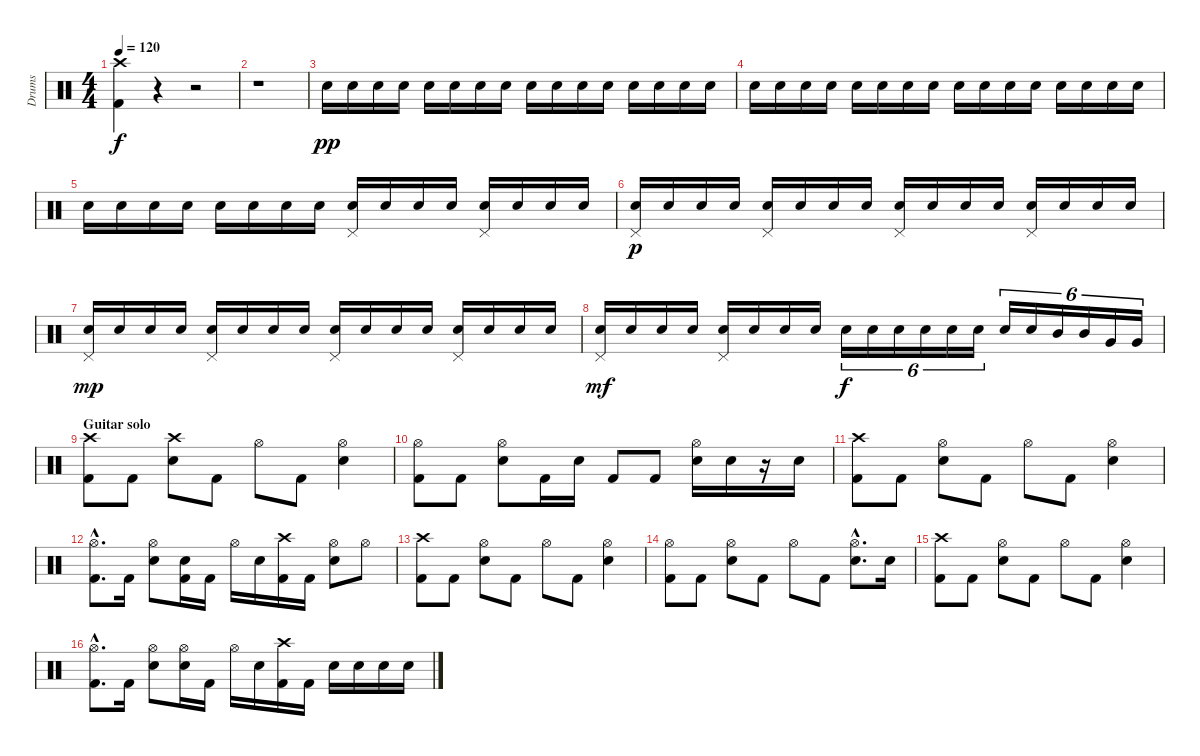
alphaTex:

\track ("Drums" "Drums") {instrument percussion}
\staff {score}
\articulation defaults
\ts (4 4)
\tempo 120
\clef neutral
\ks c
("Crash high (hit)" "Kick (hit) 2").4{dy f} r.4 r.2 |
r.1 |
"Electric Snare (hit)".16{dy pp} "Electric Snare (hit)".16 "Electric Snare (hit)".16 "Electric Snare (hit)".16 "Electric Snare (hit)".16 "Electric Snare (hit)".16 "Electric Snare (hit)".16 "Electric Snare (hit)".16 "Electric Snare (hit)".16 "Electric Snare (hit)".16 "Electric Snare (hit)".16 "Electric Snare (hit)".16 "Electric Snare (hit)".16 "Electric Snare (hit)".16 "Electric Snare (hit)".16 "Electric Snare (hit)".16 |
"Electric Snare (hit)".16 "Electric Snare (hit)".16 "Electric Snare (hit)".16 "Electric Snare (hit)".16 "Electric Snare (hit)".16 "Electric Snare (hit)".16 "Electric Snare (hit)".16 "Electric Snare (hit)".16 "Electric Snare (hit)".16 "Electric Snare (hit)".16 "Electric Snare (hit)".16 "Electric Snare (hit)".16 "Electric Snare (hit)".16 "Electric Snare (hit)".16 "Electric Snare (hit)".16 "Electric Snare (hit)".16 |
"Electric Snare (hit)".16 "Electric Snare (hit)".16 "Electric Snare (hit)".16 "Electric Snare (hit)".16 "Electric Snare (hit)".16 "Electric Snare (hit)".16 "Electric Snare (hit)".16 "Electric Snare (hit)".16 ("Electric Snare (hit)" "Pedal Hi-Hat (hit)").16 "Electric Snare (hit)".16 "Electric Snare (hit)".16 "Electric Snare (hit)".16 ("Electric Snare (hit)" "Pedal Hi-Hat (hit)").16 "Electric Snare (hit)".16 "Electric Snare (hit)".16 "Electric Snare (hit)".16 |
("Electric Snare (hit)" "Pedal Hi-Hat (hit)").16{dy p} "Electric Snare (hit)".16 "Electric Snare (hit)".16 "Electric Snare (hit)".16 ("Electric Snare (hit)" "Pedal Hi-Hat (hit)").16 "Electric Snare (hit)".16 "Electric Snare (hit)".16 "Electric Snare (hit)".16 ("Electric Snare (hit)" "Pedal Hi-Hat (hit)").16 "Electric Snare (hit)".16 "Electric Snare (hit)".16 "Electric Snare (hit)".16 ("Electric Snare (hit)" "Pedal Hi-Hat (hit)").16 "Electric Snare (hit)".16 "Electric Snare (hit)".16 "Electric Snare (hit)".16 |
("Electric Snare (hit)" "Pedal Hi-Hat (hit)").16{dy mp} "Electric Snare (hit)".16 "Electric Snare (hit)".16 "Electric Snare (hit)".16 ("Electric Snare (hit)" "Pedal Hi-Hat (hit)").16 "Electric Snare (hit)".16 "Electric Snare (hit)".16 "Electric Snare (hit)".16 ("Electric Snare (hit)" "Pedal Hi-Hat (hit)").16 "Electric Snare (hit)".16 "Electric Snare (hit)".16 "Electric Snare (hit)".16 ("Electric Snare (hit)" "Pedal Hi-Hat (hit)").16 "Electric Snare (hit)".16 "Electric Snare (hit)".16 "Electric Snare (hit)".16 |
("Electric Snare (hit)" "Pedal Hi-Hat (hit)").16{dy mf} "Electric Snare (hit)".16 "Electric Snare (hit)".16 "Electric Snare (hit)".16 ("Electric Snare (hit)" "Pedal Hi-Hat (hit)").16 "Electric Snare (hit)".16 "Electric Snare (hit)".16 "Electric Snare (hit)".16 "Electric Snare (hit)".16{tu (6 4) dy f} "Electric Snare (hit)".16{tu (6 4)} "Electric Snare (hit)".16{tu (6 4)} "Electric Snare (hit)".16{tu (6 4)} "Electric Snare (hit)".16{tu (6 4)} "Electric Snare (hit)".16{tu (6 4)} "Electric Snare (hit)".16{tu (6 4)} "Electric Snare (hit)".16{tu (6 4)} "Mid Tom (hit)".16{tu (6 4)} "Mid Tom (hit)".16{tu (6 4)} "Very Low Tom (hit)".16{tu (6 4)} "Very Low Tom (hit)".16{tu (6 4)} |
\section ("" "Guitar solo")
("Crash high (hit)" "Kick (hit) 2").8 "Kick (hit) 2".8 ("Crash high (hit)" "Electric Snare (hit)").8 "Kick (hit) 2".8 "Hi-Hat (open)".8 "Kick (hit) 2".8 ("Hi-Hat (open)" "Electric Snare (hit)").4 |
("Hi-Hat (open)" "Kick (hit) 2").8 "Kick (hit) 2".8 ("Hi-Hat (open)" "Electric Snare (hit)").8 "Kick (hit) 2".16 "Electric Snare (hit)".16 "Kick (hit) 2".8 "Kick (hit) 2".8 ("Hi-Hat (open)" "Electric Snare (hit)").16 "Electric Snare (hit)".16 r.16 "Electric Snare (hit)".16 |
("Crash high (hit)" "Kick (hit) 2").8 "Kick (hit) 2".8 ("Hi-Hat (open)" "Electric Snare (hit)").8 "Kick (hit) 2".8 "Hi-Hat (open)".8 "Kick (hit) 2".8 ("Hi-Hat (open)" "Electric Snare (hit)").4 |
("Hi-Hat (open)"{hac} "Kick (hit) 2"{hac}).8{d} "Kick (hit) 2".16 ("Hi-Hat (open)" "Electric Snare (hit)").8 ("Kick (hit) 2" "Electric Snare (hit)").16 "Kick (hit) 2".16 "Hi-Hat (open)".16 "Electric Snare (hit)".16 ("Crash high (hit)" "Kick (hit) 2").16 "Kick (hit) 2".16 ("Hi-Hat (open)" "Electric Snare (hit)").8 "Hi-Hat (open)".8 |
("Crash high (hit)" "Kick (hit) 2").8 "Kick (hit) 2".8 ("Hi-Hat (open)" "Electric Snare (hit)").8 "Kick (hit) 2".8 "Hi-Hat (open)".8 "Kick (hit) 2".8 ("Hi-Hat (open)" "Electric Snare (hit)").4 |
("Hi-Hat (open)" "Kick (hit) 2").8 "Kick (hit) 2".8 ("Hi-Hat (open)" "Electric Snare (hit)").8 "Kick (hit) 2".8 "Hi-Hat (open)".8 "Kick (hit) 2".8 ("Hi-Hat (open)"{hac} "Electric Snare (hit)"{hac}).8{d} "Electric Snare (hit)".16 |
("Crash high (hit)" "Kick (hit) 2").8 "Kick (hit) 2".8 ("Hi-Hat (open)" "Electric Snare (hit)").8 "Kick (hit) 2".8 "Hi-Hat (open)".8 "Kick (hit) 2".8 ("Hi-Hat (open)" "Electric Snare (hit)").4 |
("Hi-Hat (open)"{hac} "Kick (hit) 2"{hac}).8{d} "Kick (hit) 2".16 ("Hi-Hat (open)" "Electric Snare (hit)").8 ("Hi-Hat (open)" "Electric Snare (hit)").16 "Kick (hit) 2".16 "Hi-Hat (open)".16 "Electric Snare (hit)".16 ("Crash high (hit)" "Kick (hit) 2").16 "Kick (hit) 2".16 "Electric Snare (hit)".16 "Electric Snare (hit)".16 "Electric Snare (hit)".16 "Electric Snare (hit)".16
